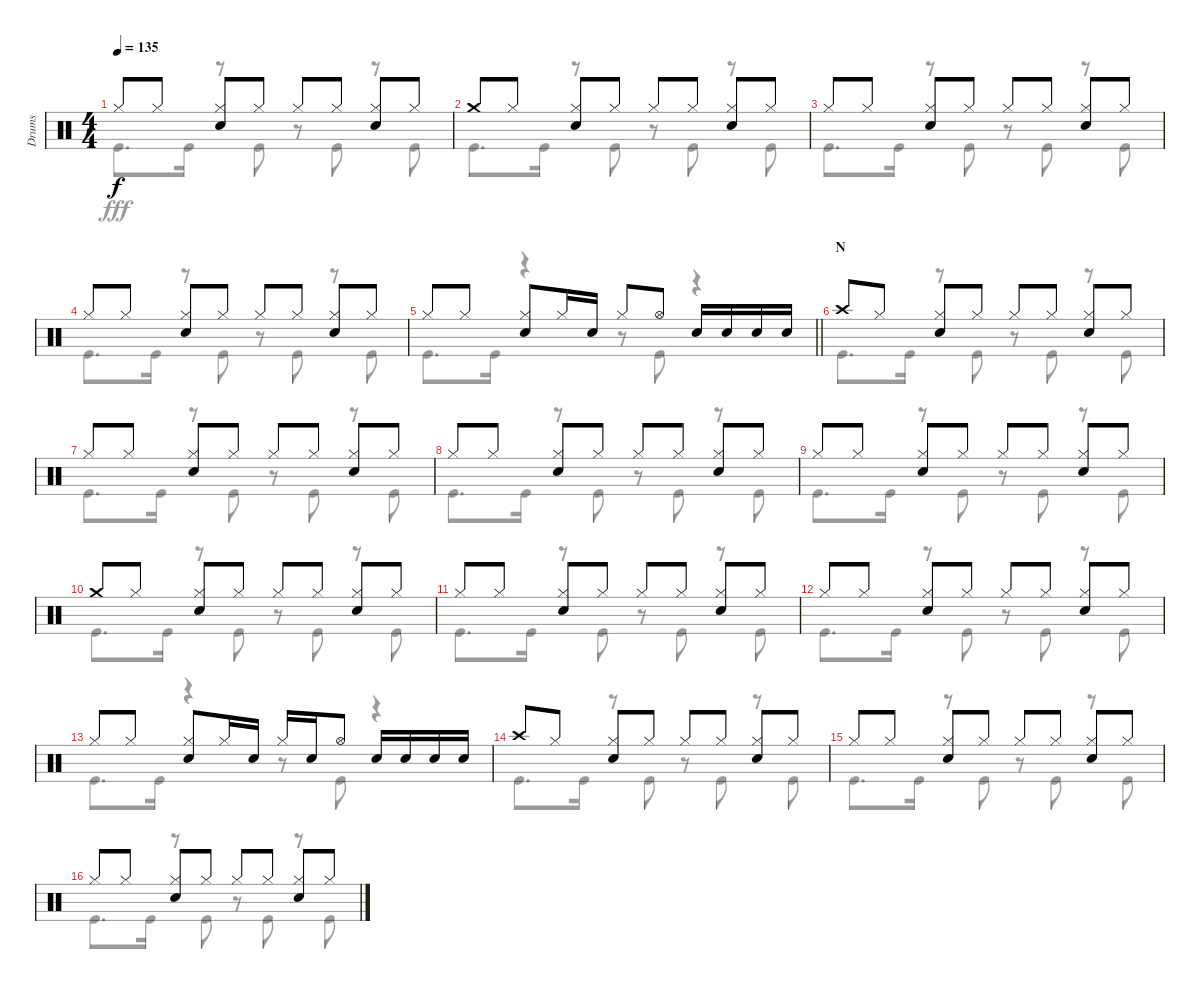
\track ("Drums" "Drums") {instrument percussion}
\staff {score}
\articulation defaults
\voice
\ts (4 4)
\tempo 135
\clef neutral
\ks c "Hi-Hat (closed)".8{dy f} "Hi-Hat (closed)".8
("Hi-Hat (closed)" "Snare (hit) 2").8 "Hi-Hat (closed)".8 "Hi-Hat (closed)".8 "Hi-Hat (closed)".8 ("Hi-Hat (closed)" "Snare (hit) 2").8 "Hi-Hat (closed)".8 |
"Crash medium (hit)".8 "Hi-Hat (closed)".8 ("Hi-Hat (closed)" "Snare (hit) 2").8 "Hi-Hat (closed)".8 "Hi-Hat (closed)".8 "Hi-Hat (closed)".8 ("Hi-Hat (closed)" "Snare (hit) 2").8 "Hi-Hat (closed)".8 |
"Hi-Hat (closed)".8 "Hi-Hat (closed)".8 ("Hi-Hat (closed)" "Snare (hit) 2").8 "Hi-Hat (closed)".8 "Hi-Hat (closed)".8 "Hi-Hat (closed)".8 ("Hi-Hat (closed)" "Snare (hit) 2").8 "Hi-Hat (closed)".8 |
"Hi-Hat (closed)".8 "Hi-Hat (closed)".8 ("Hi-Hat (closed)" "Snare (hit) 2").8 "Hi-Hat (closed)".8 "Hi-Hat (closed)".8 "Hi-Hat (closed)".8 ("Hi-Hat (closed)" "Snare (hit) 2").8 "Hi-Hat (closed)".8 |
\barLineRight lightlight "Hi-Hat (closed)".8 "Hi-Hat (closed)".8
("Hi-Hat (closed)" "Snare (hit) 2").8 "Hi-Hat (closed)".16 "Snare (hit) 2".16 "Hi-Hat (closed)".8 "Hi-Hat (open)".8 "Snare (hit) 2".16 "Snare (hit) 2".16 "Snare (hit) 2".16 "Snare (hit) 2".16 |
\section ("" "N")
"Crash high (hit)".8 "Hi-Hat (closed)".8 ("Hi-Hat (closed)" "Snare (hit) 2").8 "Hi-Hat (closed)".8 "Hi-Hat (closed)".8 "Hi-Hat (closed)".8 ("Hi-Hat (closed)" "Snare (hit) 2").8 "Hi-Hat (closed)".8 |
"Hi-Hat (closed)".8 "Hi-Hat (closed)".8 ("Hi-Hat (closed)" "Snare (hit) 2").8 "Hi-Hat (closed)".8 "Hi-Hat (closed)".8 "Hi-Hat (closed)".8 ("Hi-Hat (closed)" "Snare (hit) 2").8 "Hi-Hat (closed)".8 |
"Hi-Hat (closed)".8 "Hi-Hat (closed)".8 ("Hi-Hat (closed)" "Snare (hit) 2").8 "Hi-Hat (closed)".8 "Hi-Hat (closed)".8 "Hi-Hat (closed)".8 ("Hi-Hat (closed)" "Snare (hit) 2").8 "Hi-Hat (closed)".8 |
"Hi-Hat (closed)".8 "Hi-Hat (closed)".8 ("Hi-Hat (closed)" "Snare (hit) 2").8 "Hi-Hat (closed)".8 "Hi-Hat (closed)".8 "Hi-Hat (closed)".8 ("Hi-Hat (closed)" "Snare (hit) 2").8 "Hi-Hat (closed)".8 |
"Crash medium (hit)".8 "Hi-Hat (closed)".8 ("Hi-Hat (closed)" "Snare (hit) 2").8 "Hi-Hat (closed)".8 "Hi-Hat (closed)".8 "Hi-Hat (closed)".8 ("Hi-Hat (closed)" "Snare (hit) 2").8 "Hi-Hat (closed)".8 |
"Hi-Hat (closed)".8 "Hi-Hat (closed)".8 ("Hi-Hat (closed)" "Snare (hit) 2").8 "Hi-Hat (closed)".8 "Hi-Hat (closed)".8 "Hi-Hat (closed)".8 ("Hi-Hat (closed)" "Snare (hit) 2").8 "Hi-Hat (closed)".8 |
"Hi-Hat (closed)".8 "Hi-Hat (closed)".8 ("Hi-Hat (closed)" "Snare (hit) 2").8 "Hi-Hat (closed)".8 "Hi-Hat (closed)".8 "Hi-Hat (closed)".8 ("Hi-Hat (closed)" "Snare (hit) 2").8 "Hi-Hat (closed)".8 |
"Hi-Hat (closed)".8 "Hi-Hat (closed)".8 ("Hi-Hat (closed)" "Snare (hit) 2").8 "Hi-Hat (closed)".16 "Snare (hit) 2".16 "Hi-Hat (closed)".16 "Snare (hit) 2".16 "Hi-Hat (open)".8 "Snare (hit) 2".16 "Snare (hit) 2".16 "Snare (hit) 2".16 "Snare (hit) 2".16 |
"Crash high (hit)".8 "Hi-Hat (closed)".8 ("Hi-Hat (closed)" "Snare (hit) 2").8 "Hi-Hat (closed)".8 "Hi-Hat (closed)".8 "Hi-Hat (closed)".8 ("Hi-Hat (closed)" "Snare (hit) 2").8 "Hi-Hat (closed)".8 |
"Hi-Hat (closed)".8 "Hi-Hat (closed)".8 ("Hi-Hat (closed)" "Snare (hit) 2").8 "Hi-Hat (closed)".8 "Hi-Hat (closed)".8 "Hi-Hat (closed)".8 ("Hi-Hat (closed)" "Snare (hit) 2").8 "Hi-Hat (closed)".8 |
"Hi-Hat (closed)".8 "Hi-Hat (closed)".8 ("Hi-Hat (closed)" "Snare (hit) 2").8 "Hi-Hat (closed)".8 "Hi-Hat (closed)".8 "Hi-Hat (closed)".8 ("Hi-Hat (closed)" "Snare (hit) 2").8 "Hi-Hat (closed)".8
\voice
\clef neutral
\ottava regular
\simile none
\ks c "Kick (hit)".8{d dy fff} "Kick (hit)".16
r.8 "Kick (hit)".8 r.8 "Kick (hit)".8 r.8 "Kick (hit)".8 |
"Kick (hit)".8{d} "Kick (hit)".16 r.8 "Kick (hit)".8 r.8 "Kick (hit)".8 r.8 "Kick (hit)".8 |
"Kick (hit)".8{d} "Kick (hit)".16 r.8 "Kick (hit)".8 r.8 "Kick (hit)".8 r.8 "Kick (hit)".8 |
"Kick (hit)".8{d} "Kick (hit)".16 r.8 "Kick (hit)".8 r.8 "Kick (hit)".8 r.8 "Kick (hit)".8 |
\barLineRight lightlight "Kick (hit)".8{d} "Kick (hit)".16
r.4 r.8 "Kick (hit)".8 r.4 |
"Kick (hit)".8{d} "Kick (hit)".16 r.8 "Kick (hit)".8 r.8 "Kick (hit)".8 r.8 "Kick (hit)".8 |
"Kick (hit)".8{d} "Kick (hit)".16 r.8 "Kick (hit)".8 r.8 "Kick (hit)".8 r.8 "Kick (hit)".8 |
"Kick (hit)".8{d} "Kick (hit)".16 r.8 "Kick (hit)".8 r.8 "Kick (hit)".8 r.8 "Kick (hit)".8 |
"Kick (hit)".8{d} "Kick (hit)".16 r.8 "Kick (hit)".8 r.8 "Kick (hit)".8 r.8 "Kick (hit)".8 |
"Kick (hit)".8{d} "Kick (hit)".16 r.8 "Kick (hit)".8 r.8 "Kick (hit)".8 r.8 "Kick (hit)".8 |
"Kick (hit)".8{d} "Kick (hit)".16 r.8 "Kick (hit)".8 r.8 "Kick (hit)".8 r.8 "Kick (hit)".8 |
"Kick (hit)".8{d} "Kick (hit)".16 r.8 "Kick (hit)".8 r.8 "Kick (hit)".8 r.8 "Kick (hit)".8 |
"Kick (hit)".8{d} "Kick (hit)".16 r.4 r.8 "Kick (hit)".8 r.4 |
"Kick (hit)".8{d} "Kick (hit)".16 r.8 "Kick (hit)".8 r.8 "Kick (hit)".8 r.8 "Kick (hit)".8 |
"Kick (hit)".8{d} "Kick (hit)".16 r.8 "Kick (hit)".8 r.8 "Kick (hit)".8 r.8 "Kick (hit)".8 |
"Kick (hit)".8{d} "Kick (hit)".16 r.8 "Kick (hit)".8 r.8 "Kick (hit)".8 r.8 "Kick (hit)".8
